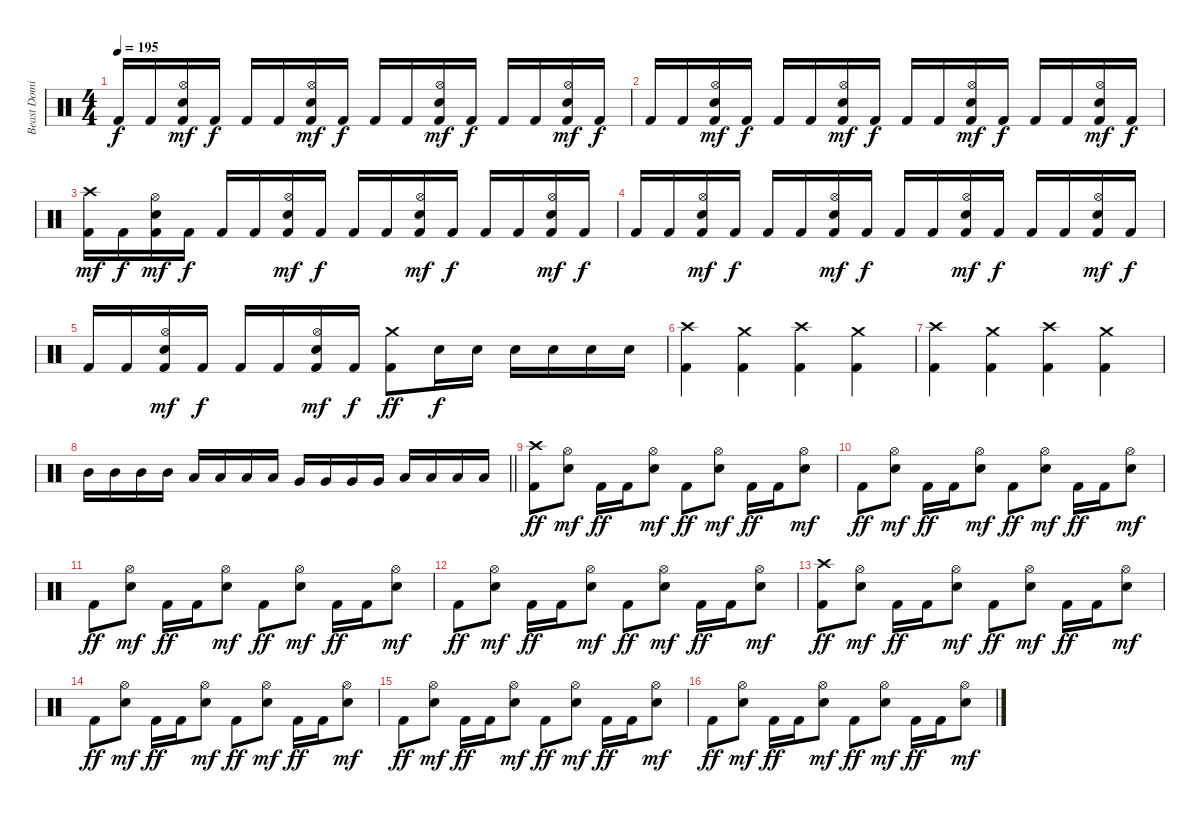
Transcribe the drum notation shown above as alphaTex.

\track ("Beast Dominator" "Beast Domi") {instrument percussion}
\staff {score}
\articulation defaults
\ts (4 4)
\tempo 195
\clef neutral
\ks c "Kick (hit) 2".16{dy f} "Kick (hit) 2".16
("Hi-Hat (open)" "Snare (hit) 2" "Kick (hit) 2").16{dy mf} "Kick (hit) 2".16{dy f} "Kick (hit) 2".16 "Kick (hit) 2".16 ("Hi-Hat (open)" "Snare (hit) 2" "Kick (hit) 2").16{dy mf} "Kick (hit) 2".16{dy f} "Kick (hit) 2".16 "Kick (hit) 2".16 ("Hi-Hat (open)" "Snare (hit) 2" "Kick (hit) 2").16{dy mf} "Kick (hit) 2".16{dy f} "Kick (hit) 2".16 "Kick (hit) 2".16 ("Hi-Hat (open)" "Snare (hit) 2" "Kick (hit) 2").16{dy mf} "Kick (hit) 2".16{dy f} |
"Kick (hit) 2".16 "Kick (hit) 2".16 ("Hi-Hat (open)" "Snare (hit) 2" "Kick (hit) 2").16{dy mf} "Kick (hit) 2".16{dy f} "Kick (hit) 2".16 "Kick (hit) 2".16 ("Hi-Hat (open)" "Snare (hit) 2" "Kick (hit) 2").16{dy mf} "Kick (hit) 2".16{dy f} "Kick (hit) 2".16 "Kick (hit) 2".16 ("Hi-Hat (open)" "Snare (hit) 2" "Kick (hit) 2").16{dy mf} "Kick (hit) 2".16{dy f} "Kick (hit) 2".16 "Kick (hit) 2".16 ("Hi-Hat (open)" "Snare (hit) 2" "Kick (hit) 2").16{dy mf} "Kick (hit) 2".16{dy f} |
("Crash high (hit)" "Kick (hit) 2").16{dy mf} "Kick (hit) 2".16{dy f} ("Hi-Hat (open)" "Snare (hit) 2" "Kick (hit) 2").16{dy mf} "Kick (hit) 2".16{dy f} "Kick (hit) 2".16 "Kick (hit) 2".16 ("Hi-Hat (open)" "Snare (hit) 2" "Kick (hit) 2").16{dy mf} "Kick (hit) 2".16{dy f} "Kick (hit) 2".16 "Kick (hit) 2".16 ("Hi-Hat (open)" "Snare (hit) 2" "Kick (hit) 2").16{dy mf} "Kick (hit) 2".16{dy f} "Kick (hit) 2".16 "Kick (hit) 2".16 ("Hi-Hat (open)" "Snare (hit) 2" "Kick (hit) 2").16{dy mf} "Kick (hit) 2".16{dy f} |
"Kick (hit) 2".16 "Kick (hit) 2".16 ("Hi-Hat (open)" "Snare (hit) 2" "Kick (hit) 2").16{dy mf} "Kick (hit) 2".16{dy f} "Kick (hit) 2".16 "Kick (hit) 2".16 ("Hi-Hat (open)" "Snare (hit) 2" "Kick (hit) 2").16{dy mf} "Kick (hit) 2".16{dy f} "Kick (hit) 2".16 "Kick (hit) 2".16 ("Hi-Hat (open)" "Snare (hit) 2" "Kick (hit) 2").16{dy mf} "Kick (hit) 2".16{dy f} "Kick (hit) 2".16 "Kick (hit) 2".16 ("Hi-Hat (open)" "Snare (hit) 2" "Kick (hit) 2").16{dy mf} "Kick (hit) 2".16{dy f} |
"Kick (hit) 2".16 "Kick (hit) 2".16 ("Hi-Hat (open)" "Snare (hit) 2" "Kick (hit) 2").16{dy mf} "Kick (hit) 2".16{dy f} "Kick (hit) 2".16 "Kick (hit) 2".16 ("Hi-Hat (open)" "Snare (hit) 2" "Kick (hit) 2").16{dy mf} "Kick (hit) 2".16{dy f} ("Crash medium (hit)" "Kick (hit) 2").8{dy ff} "Snare (hit) 2".16{dy f} "Snare (hit) 2".16 "Snare (hit) 2".16 "Snare (hit) 2".16 "Snare (hit) 2".16 "Snare (hit) 2".16 |
("Crash high (hit)" "Kick (hit) 2").4 ("Crash medium (hit)" "Kick (hit) 2").4 ("Crash high (hit)" "Kick (hit) 2").4 ("Crash medium (hit)" "Kick (hit) 2").4 |
("Crash high (hit)" "Kick (hit) 2").4 ("Crash medium (hit)" "Kick (hit) 2").4 ("Crash high (hit)" "Kick (hit) 2").4 ("Crash medium (hit)" "Kick (hit) 2").4 |
\barLineRight lightlight "Mid Tom (hit)".16 "Mid Tom (hit)".16 "Mid Tom (hit)".16 "Mid Tom (hit)".16 "Low Tom (hit)".16 "Low Tom (hit)".16 "Low Tom (hit)".16 "Low Tom (hit)".16 "Very Low Tom (hit)".16 "Very Low Tom (hit)".16 "Very Low Tom (hit)".16 "Very Low Tom (hit)".16 "Low Floor Tom (hit)".16 "Low Floor Tom (hit)".16 "Low Floor Tom (hit)".16 "Low Floor Tom (hit)".16
|
("Crash high (hit)" "Kick (hit) 2").8{dy ff} ("Hi-Hat (open)" "Snare (hit) 2").8{dy mf} "Kick (hit) 2".16{dy ff} "Kick (hit) 2".16 ("Hi-Hat (open)" "Snare (hit) 2").8{dy mf} "Kick (hit) 2".8{dy ff} ("Hi-Hat (open)" "Snare (hit) 2").8{dy mf} "Kick (hit) 2".16{dy ff} "Kick (hit) 2".16 ("Hi-Hat (open)" "Snare (hit) 2").8{dy mf} |
"Kick (hit) 2".8{dy ff} ("Hi-Hat (open)" "Snare (hit) 2").8{dy mf} "Kick (hit) 2".16{dy ff} "Kick (hit) 2".16 ("Hi-Hat (open)" "Snare (hit) 2").8{dy mf} "Kick (hit) 2".8{dy ff} ("Hi-Hat (open)" "Snare (hit) 2").8{dy mf} "Kick (hit) 2".16{dy ff} "Kick (hit) 2".16 ("Hi-Hat (open)" "Snare (hit) 2").8{dy mf} |
"Kick (hit) 2".8{dy ff} ("Hi-Hat (open)" "Snare (hit) 2").8{dy mf} "Kick (hit) 2".16{dy ff} "Kick (hit) 2".16 ("Hi-Hat (open)" "Snare (hit) 2").8{dy mf} "Kick (hit) 2".8{dy ff} ("Hi-Hat (open)" "Snare (hit) 2").8{dy mf} "Kick (hit) 2".16{dy ff} "Kick (hit) 2".16 ("Hi-Hat (open)" "Snare (hit) 2").8{dy mf} |
"Kick (hit) 2".8{dy ff} ("Hi-Hat (open)" "Snare (hit) 2").8{dy mf} "Kick (hit) 2".16{dy ff} "Kick (hit) 2".16 ("Hi-Hat (open)" "Snare (hit) 2").8{dy mf} "Kick (hit) 2".8{dy ff} ("Hi-Hat (open)" "Snare (hit) 2").8{dy mf} "Kick (hit) 2".16{dy ff} "Kick (hit) 2".16 ("Hi-Hat (open)" "Snare (hit) 2").8{dy mf} |
("Crash high (hit)" "Kick (hit) 2").8{dy ff} ("Hi-Hat (open)" "Snare (hit) 2").8{dy mf} "Kick (hit) 2".16{dy ff} "Kick (hit) 2".16 ("Hi-Hat (open)" "Snare (hit) 2").8{dy mf} "Kick (hit) 2".8{dy ff} ("Hi-Hat (open)" "Snare (hit) 2").8{dy mf} "Kick (hit) 2".16{dy ff} "Kick (hit) 2".16 ("Hi-Hat (open)" "Snare (hit) 2").8{dy mf} |
"Kick (hit) 2".8{dy ff} ("Hi-Hat (open)" "Snare (hit) 2").8{dy mf} "Kick (hit) 2".16{dy ff} "Kick (hit) 2".16 ("Hi-Hat (open)" "Snare (hit) 2").8{dy mf} "Kick (hit) 2".8{dy ff} ("Hi-Hat (open)" "Snare (hit) 2").8{dy mf} "Kick (hit) 2".16{dy ff} "Kick (hit) 2".16 ("Hi-Hat (open)" "Snare (hit) 2").8{dy mf} |
"Kick (hit) 2".8{dy ff} ("Hi-Hat (open)" "Snare (hit) 2").8{dy mf} "Kick (hit) 2".16{dy ff} "Kick (hit) 2".16 ("Hi-Hat (open)" "Snare (hit) 2").8{dy mf} "Kick (hit) 2".8{dy ff} ("Hi-Hat (open)" "Snare (hit) 2").8{dy mf} "Kick (hit) 2".16{dy ff} "Kick (hit) 2".16 ("Hi-Hat (open)" "Snare (hit) 2").8{dy mf} |
"Kick (hit) 2".8{dy ff} ("Hi-Hat (open)" "Snare (hit) 2").8{dy mf} "Kick (hit) 2".16{dy ff} "Kick (hit) 2".16 ("Hi-Hat (open)" "Snare (hit) 2").8{dy mf} "Kick (hit) 2".8{dy ff} ("Hi-Hat (open)" "Snare (hit) 2").8{dy mf} "Kick (hit) 2".16{dy ff} "Kick (hit) 2".16 ("Hi-Hat (open)" "Snare (hit) 2").8{dy mf}
